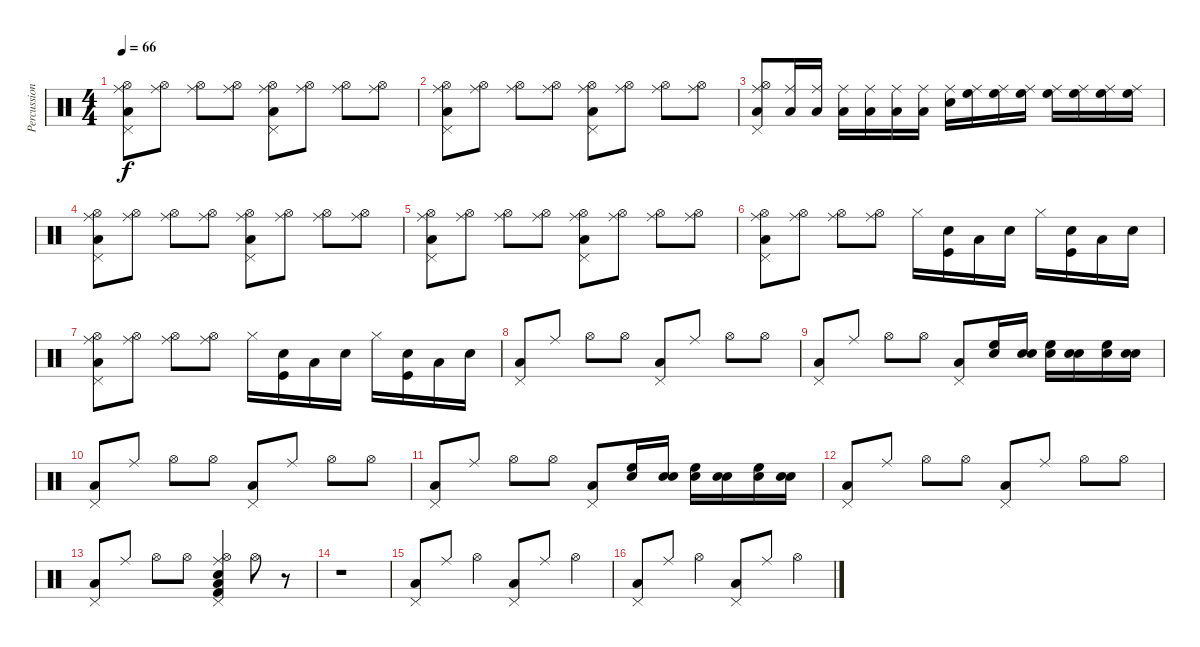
\track ("Percussions" "Percussion") {instrument percussion}
\staff {score}
\articulation defaults
\ts (4 4)
\tempo 66
\clef neutral
\ks c
("Pedal Hi-Hat (hit)" "Low Tom (hit)" "Hi-Hat (open)" "Ride (middle)").8{dy f} ("Ride (middle)" "Hi-Hat (open)").8 ("Hi-Hat (open)" "Ride (middle)").8 ("Hi-Hat (open)" "Ride (middle)").8 ("Pedal Hi-Hat (hit)" "Low Tom (hit)" "Hi-Hat (open)" "Ride (middle)").8 ("Ride (middle)" "Hi-Hat (open)").8 ("Hi-Hat (open)" "Ride (middle)").8 ("Hi-Hat (open)" "Ride (middle)").8 |
("Pedal Hi-Hat (hit)" "Low Tom (hit)" "Hi-Hat (open)" "Ride (middle)").8 ("Ride (middle)" "Hi-Hat (open)").8 ("Hi-Hat (open)" "Ride (middle)").8 ("Hi-Hat (open)" "Ride (middle)").8 ("Pedal Hi-Hat (hit)" "Low Tom (hit)" "Hi-Hat (open)" "Ride (middle)").8 ("Ride (middle)" "Hi-Hat (open)").8 ("Hi-Hat (open)" "Ride (middle)").8 ("Hi-Hat (open)" "Ride (middle)").8 |
("Pedal Hi-Hat (hit)" "Low Tom (hit)" "Hi-Hat (open)" "Ride (middle)").8 ("Ride (middle)" "Low Floor Tom (hit)").16 ("Low Floor Tom (hit)" "Ride (middle)").16 ("Low Floor Tom (hit)" "Ride (middle)").16 ("Low Floor Tom (hit)" "Ride (middle)").16 ("Low Floor Tom (hit)" "Ride (middle)").16 ("Low Floor Tom (hit)" "Ride (middle)").16 ("Ride (middle)" "Electric Snare (hit)").16 ("High Floor Tom (hit)" "Ride (middle)").16 ("High Floor Tom (hit)" "Ride (middle)").16 ("High Floor Tom (hit)" "Ride (middle)").16 ("High Floor Tom (hit)" "Ride (middle)").16 ("High Floor Tom (hit)" "Ride (middle)").16 ("High Floor Tom (hit)" "Ride (middle)").16 ("High Floor Tom (hit)" "Ride (middle)").16 |
("Pedal Hi-Hat (hit)" "Low Tom (hit)" "Hi-Hat (open)" "Ride (middle)").8 ("Ride (middle)" "Hi-Hat (open)").8 ("Hi-Hat (open)" "Ride (middle)").8 ("Hi-Hat (open)" "Ride (middle)").8 ("Pedal Hi-Hat (hit)" "Low Tom (hit)" "Hi-Hat (open)" "Ride (middle)").8 ("Ride (middle)" "Hi-Hat (open)").8 ("Hi-Hat (open)" "Ride (middle)").8 ("Hi-Hat (open)" "Ride (middle)").8 |
("Pedal Hi-Hat (hit)" "Low Tom (hit)" "Hi-Hat (open)" "Ride (middle)").8 ("Ride (middle)" "Hi-Hat (open)").8 ("Hi-Hat (open)" "Ride (middle)").8 ("Hi-Hat (open)" "Ride (middle)").8 ("Pedal Hi-Hat (hit)" "Low Tom (hit)" "Hi-Hat (open)" "Ride (middle)").8 ("Ride (middle)" "Hi-Hat (open)").8 ("Hi-Hat (open)" "Ride (middle)").8 ("Hi-Hat (open)" "Ride (middle)").8 |
("Pedal Hi-Hat (hit)" "Low Tom (hit)" "Hi-Hat (open)" "Ride (middle)").8 ("Ride (middle)" "Hi-Hat (open)").8 ("Hi-Hat (open)" "Ride (middle)").8 ("Hi-Hat (open)" "Ride (middle)").8 "Hi-Hat (closed)".16 ("Snare (hit) 2" "Kick (hit)").16 "Low Tom (hit)".16 "Snare (hit) 2".16 "Hi-Hat (closed)".16 ("Snare (hit) 2" "Kick (hit)").16 "Low Tom (hit)".16 "Snare (hit) 2".16 |
("Pedal Hi-Hat (hit)" "Low Tom (hit)" "Hi-Hat (open)" "Ride (middle)").8 ("Ride (middle)" "Hi-Hat (open)").8 ("Hi-Hat (open)" "Ride (middle)").8 ("Hi-Hat (open)" "Ride (middle)").8 "Hi-Hat (closed)".16 ("Snare (hit) 2" "Kick (hit)").16 "Low Tom (hit)".16 "Snare (hit) 2".16 "Hi-Hat (closed)".16 ("Snare (hit) 2" "Kick (hit)").16 "Low Tom (hit)".16 "Snare (hit) 2".16 |
("Pedal Hi-Hat (hit)" "Low Tom (hit)").8 "Ride (middle)".8 "Hi-Hat (open)".8 "Hi-Hat (open)".8 ("Pedal Hi-Hat (hit)" "Low Tom (hit)").8 "Ride (middle)".8 "Hi-Hat (open)".8 "Hi-Hat (open)".8 |
("Pedal Hi-Hat (hit)" "Low Tom (hit)").8 "Ride (middle)".8 "Hi-Hat (open)".8 "Hi-Hat (open)".8 ("Pedal Hi-Hat (hit)" "Low Tom (hit)").8 ("High Floor Tom (hit)" "Snare (hit) 2").16 ("Electric Snare (hit)" "Snare (hit) 2").16 ("High Floor Tom (hit)" "Snare (hit) 2").16 ("Electric Snare (hit)" "Snare (hit) 2").16 ("High Floor Tom (hit)" "Snare (hit) 2").16 ("Electric Snare (hit)" "Snare (hit) 2").16 |
("Pedal Hi-Hat (hit)" "Low Tom (hit)").8 "Ride (middle)".8 "Hi-Hat (open)".8 "Hi-Hat (open)".8 ("Pedal Hi-Hat (hit)" "Low Tom (hit)").8 "Ride (middle)".8 "Hi-Hat (open)".8 "Hi-Hat (open)".8 |
("Pedal Hi-Hat (hit)" "Low Tom (hit)").8 "Ride (middle)".8 "Hi-Hat (open)".8 "Hi-Hat (open)".8 ("Pedal Hi-Hat (hit)" "Low Tom (hit)").8 ("High Floor Tom (hit)" "Snare (hit) 2").16 ("Electric Snare (hit)" "Snare (hit) 2").16 ("High Floor Tom (hit)" "Snare (hit) 2").16 ("Electric Snare (hit)" "Snare (hit) 2").16 ("High Floor Tom (hit)" "Snare (hit) 2").16 ("Electric Snare (hit)" "Snare (hit) 2").16 |
("Pedal Hi-Hat (hit)" "Low Tom (hit)").8 "Ride (middle)".8 "Hi-Hat (open)".8 "Hi-Hat (open)".8 ("Pedal Hi-Hat (hit)" "Low Tom (hit)").8 "Ride (middle)".8 "Hi-Hat (open)".8 "Hi-Hat (open)".8 |
("Pedal Hi-Hat (hit)" "Low Tom (hit)").8 "Ride (middle)".8 "Hi-Hat (open)".8 "Hi-Hat (open)".8 ("Pedal Hi-Hat (hit)" "Low Tom (hit)" "Snare (hit) 2" "Kick (hit) 2" "Ride (middle)" "Hi-Hat (open)").4 "Hi-Hat (open)".8 r.8 |
r.1 |
("Pedal Hi-Hat (hit)" "Low Tom (hit)").8 "Ride (middle)".8 "Hi-Hat (open)".4 ("Pedal Hi-Hat (hit)" "Low Tom (hit)").8 "Ride (middle)".8 "Hi-Hat (open)".4 |
("Pedal Hi-Hat (hit)" "Low Tom (hit)").8 "Ride (middle)".8 "Hi-Hat (open)".4 ("Pedal Hi-Hat (hit)" "Low Tom (hit)").8 "Ride (middle)".8 "Hi-Hat (open)".4
